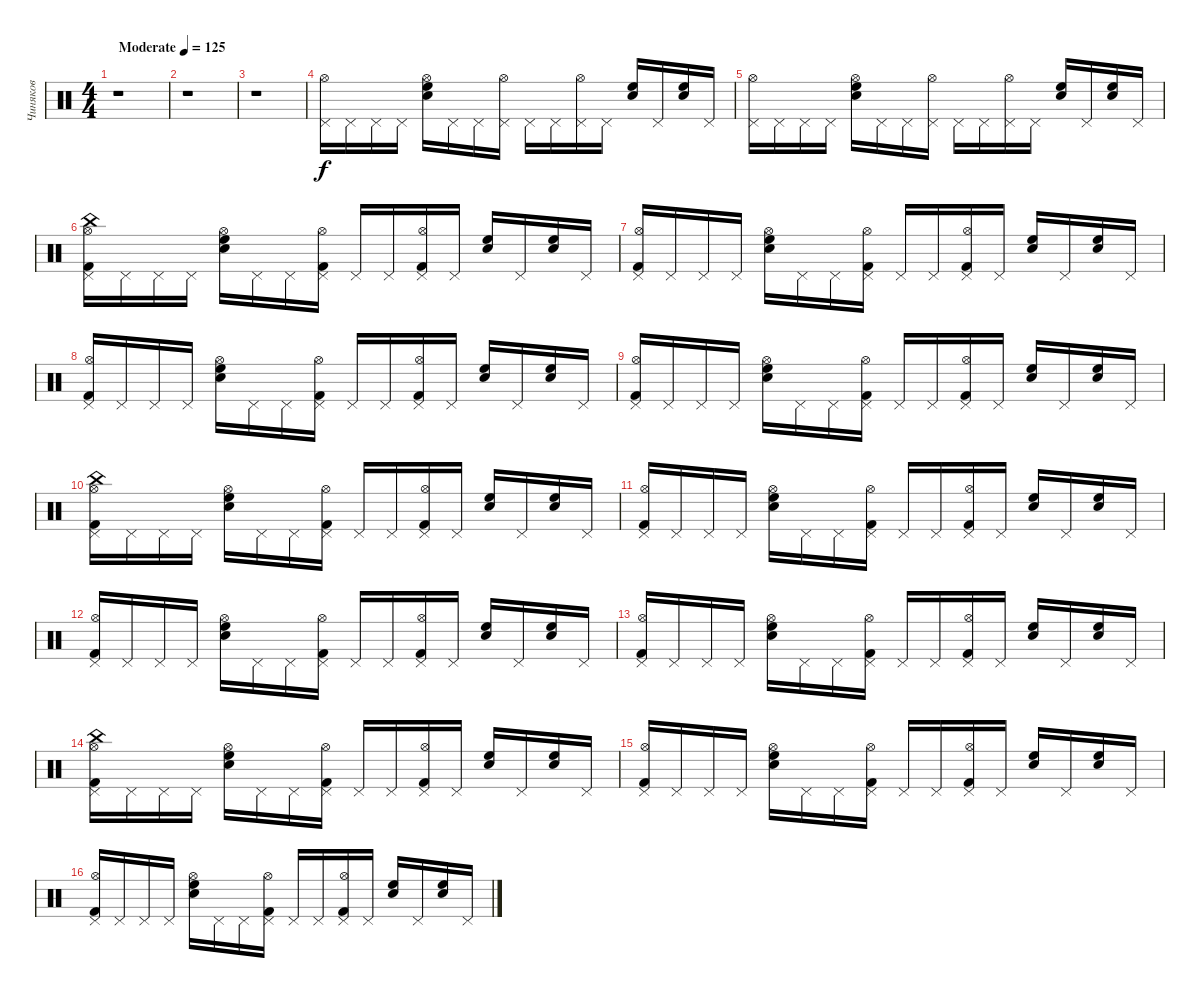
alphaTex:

\track ("Чиняков" "Чиняков") {instrument percussion}
\staff {score}
\articulation defaults
\ts (4 4)
\tempo (125 "Moderate")
\clef neutral
\ks c
r.1{dy f} |
r.1 |
r.1 |
("Pedal Hi-Hat (hit)" "Hi-Hat (open)").16{volume 5} "Pedal Hi-Hat (hit)".16 "Pedal Hi-Hat (hit)".16 "Pedal Hi-Hat (hit)".16{volume 6} ("Electric Snare (hit)" "High Floor Tom (hit)" "Hi-Hat (open)").16 "Pedal Hi-Hat (hit)".16 "Pedal Hi-Hat (hit)".16 ("Pedal Hi-Hat (hit)" "Hi-Hat (open)").16{volume 8} "Pedal Hi-Hat (hit)".16 "Pedal Hi-Hat (hit)".16 ("Pedal Hi-Hat (hit)" "Hi-Hat (open)").16 "Pedal Hi-Hat (hit)".16 ("High Floor Tom (hit)" "Electric Snare (hit)").16{volume 9} "Pedal Hi-Hat (hit)".16 ("High Floor Tom (hit)" "Electric Snare (hit)").16 "Pedal Hi-Hat (hit)".16 |
("Pedal Hi-Hat (hit)" "Hi-Hat (open)").16{volume 9} "Pedal Hi-Hat (hit)".16 "Pedal Hi-Hat (hit)".16 "Pedal Hi-Hat (hit)".16 ("Electric Snare (hit)" "High Floor Tom (hit)" "Hi-Hat (open)").16 "Pedal Hi-Hat (hit)".16 "Pedal Hi-Hat (hit)".16{volume 11} ("Pedal Hi-Hat (hit)" "Hi-Hat (open)").16 "Pedal Hi-Hat (hit)".16 "Pedal Hi-Hat (hit)".16 ("Pedal Hi-Hat (hit)" "Hi-Hat (open)").16{volume 14} "Pedal Hi-Hat (hit)".16 ("High Floor Tom (hit)" "Electric Snare (hit)").16 "Pedal Hi-Hat (hit)".16 ("High Floor Tom (hit)" "Electric Snare (hit)").16 "Pedal Hi-Hat (hit)".16 |
("Pedal Hi-Hat (hit)" "Kick (hit) 2" "Hi-Hat (open)" "China (hit)").16 "Pedal Hi-Hat (hit)".16 "Pedal Hi-Hat (hit)".16 "Pedal Hi-Hat (hit)".16 ("Electric Snare (hit)" "High Floor Tom (hit)" "Hi-Hat (open)").16 "Pedal Hi-Hat (hit)".16 "Pedal Hi-Hat (hit)".16 ("Pedal Hi-Hat (hit)" "Kick (hit) 2" "Hi-Hat (open)").16 "Pedal Hi-Hat (hit)".16 "Pedal Hi-Hat (hit)".16 ("Pedal Hi-Hat (hit)" "Kick (hit) 2" "Hi-Hat (open)").16 "Pedal Hi-Hat (hit)".16 ("High Floor Tom (hit)" "Electric Snare (hit)").16 "Pedal Hi-Hat (hit)".16 ("High Floor Tom (hit)" "Electric Snare (hit)").16 "Pedal Hi-Hat (hit)".16 |
("Pedal Hi-Hat (hit)" "Kick (hit) 2" "Hi-Hat (open)").16 "Pedal Hi-Hat (hit)".16 "Pedal Hi-Hat (hit)".16 "Pedal Hi-Hat (hit)".16 ("Electric Snare (hit)" "High Floor Tom (hit)" "Hi-Hat (open)").16 "Pedal Hi-Hat (hit)".16 "Pedal Hi-Hat (hit)".16 ("Pedal Hi-Hat (hit)" "Kick (hit) 2" "Hi-Hat (open)").16 "Pedal Hi-Hat (hit)".16 "Pedal Hi-Hat (hit)".16 ("Pedal Hi-Hat (hit)" "Kick (hit) 2" "Hi-Hat (open)").16 "Pedal Hi-Hat (hit)".16 ("High Floor Tom (hit)" "Electric Snare (hit)").16 "Pedal Hi-Hat (hit)".16 ("High Floor Tom (hit)" "Electric Snare (hit)").16 "Pedal Hi-Hat (hit)".16 |
("Pedal Hi-Hat (hit)" "Kick (hit) 2" "Hi-Hat (open)").16 "Pedal Hi-Hat (hit)".16 "Pedal Hi-Hat (hit)".16 "Pedal Hi-Hat (hit)".16 ("Electric Snare (hit)" "High Floor Tom (hit)" "Hi-Hat (open)").16 "Pedal Hi-Hat (hit)".16 "Pedal Hi-Hat (hit)".16 ("Pedal Hi-Hat (hit)" "Kick (hit) 2" "Hi-Hat (open)").16 "Pedal Hi-Hat (hit)".16 "Pedal Hi-Hat (hit)".16 ("Pedal Hi-Hat (hit)" "Kick (hit) 2" "Hi-Hat (open)").16 "Pedal Hi-Hat (hit)".16 ("High Floor Tom (hit)" "Electric Snare (hit)").16 "Pedal Hi-Hat (hit)".16 ("High Floor Tom (hit)" "Electric Snare (hit)").16 "Pedal Hi-Hat (hit)".16 |
("Pedal Hi-Hat (hit)" "Kick (hit) 2" "Hi-Hat (open)").16 "Pedal Hi-Hat (hit)".16 "Pedal Hi-Hat (hit)".16 "Pedal Hi-Hat (hit)".16 ("Electric Snare (hit)" "High Floor Tom (hit)" "Hi-Hat (open)").16 "Pedal Hi-Hat (hit)".16 "Pedal Hi-Hat (hit)".16 ("Pedal Hi-Hat (hit)" "Kick (hit) 2" "Hi-Hat (open)").16 "Pedal Hi-Hat (hit)".16 "Pedal Hi-Hat (hit)".16 ("Pedal Hi-Hat (hit)" "Kick (hit) 2" "Hi-Hat (open)").16 "Pedal Hi-Hat (hit)".16 ("High Floor Tom (hit)" "Electric Snare (hit)").16 "Pedal Hi-Hat (hit)".16 ("High Floor Tom (hit)" "Electric Snare (hit)").16 "Pedal Hi-Hat (hit)".16 |
("Pedal Hi-Hat (hit)" "Kick (hit) 2" "Hi-Hat (open)" "China (hit)").16 "Pedal Hi-Hat (hit)".16 "Pedal Hi-Hat (hit)".16 "Pedal Hi-Hat (hit)".16 ("Electric Snare (hit)" "High Floor Tom (hit)" "Hi-Hat (open)").16 "Pedal Hi-Hat (hit)".16 "Pedal Hi-Hat (hit)".16 ("Pedal Hi-Hat (hit)" "Kick (hit) 2" "Hi-Hat (open)").16 "Pedal Hi-Hat (hit)".16 "Pedal Hi-Hat (hit)".16 ("Pedal Hi-Hat (hit)" "Kick (hit) 2" "Hi-Hat (open)").16 "Pedal Hi-Hat (hit)".16 ("High Floor Tom (hit)" "Electric Snare (hit)").16 "Pedal Hi-Hat (hit)".16 ("High Floor Tom (hit)" "Electric Snare (hit)").16 "Pedal Hi-Hat (hit)".16 |
("Pedal Hi-Hat (hit)" "Kick (hit) 2" "Hi-Hat (open)").16 "Pedal Hi-Hat (hit)".16 "Pedal Hi-Hat (hit)".16 "Pedal Hi-Hat (hit)".16 ("Electric Snare (hit)" "High Floor Tom (hit)" "Hi-Hat (open)").16 "Pedal Hi-Hat (hit)".16 "Pedal Hi-Hat (hit)".16 ("Pedal Hi-Hat (hit)" "Kick (hit) 2" "Hi-Hat (open)").16 "Pedal Hi-Hat (hit)".16 "Pedal Hi-Hat (hit)".16 ("Pedal Hi-Hat (hit)" "Kick (hit) 2" "Hi-Hat (open)").16 "Pedal Hi-Hat (hit)".16 ("High Floor Tom (hit)" "Electric Snare (hit)").16 "Pedal Hi-Hat (hit)".16 ("High Floor Tom (hit)" "Electric Snare (hit)").16 "Pedal Hi-Hat (hit)".16 |
("Pedal Hi-Hat (hit)" "Kick (hit) 2" "Hi-Hat (open)").16 "Pedal Hi-Hat (hit)".16 "Pedal Hi-Hat (hit)".16 "Pedal Hi-Hat (hit)".16 ("Electric Snare (hit)" "High Floor Tom (hit)" "Hi-Hat (open)").16 "Pedal Hi-Hat (hit)".16 "Pedal Hi-Hat (hit)".16 ("Pedal Hi-Hat (hit)" "Kick (hit) 2" "Hi-Hat (open)").16 "Pedal Hi-Hat (hit)".16 "Pedal Hi-Hat (hit)".16 ("Pedal Hi-Hat (hit)" "Kick (hit) 2" "Hi-Hat (open)").16 "Pedal Hi-Hat (hit)".16 ("High Floor Tom (hit)" "Electric Snare (hit)").16 "Pedal Hi-Hat (hit)".16 ("High Floor Tom (hit)" "Electric Snare (hit)").16 "Pedal Hi-Hat (hit)".16 |
("Pedal Hi-Hat (hit)" "Kick (hit) 2" "Hi-Hat (open)").16 "Pedal Hi-Hat (hit)".16 "Pedal Hi-Hat (hit)".16 "Pedal Hi-Hat (hit)".16 ("Electric Snare (hit)" "High Floor Tom (hit)" "Hi-Hat (open)").16 "Pedal Hi-Hat (hit)".16 "Pedal Hi-Hat (hit)".16 ("Pedal Hi-Hat (hit)" "Kick (hit) 2" "Hi-Hat (open)").16 "Pedal Hi-Hat (hit)".16 "Pedal Hi-Hat (hit)".16 ("Pedal Hi-Hat (hit)" "Kick (hit) 2" "Hi-Hat (open)").16 "Pedal Hi-Hat (hit)".16 ("High Floor Tom (hit)" "Electric Snare (hit)").16 "Pedal Hi-Hat (hit)".16 ("High Floor Tom (hit)" "Electric Snare (hit)").16 "Pedal Hi-Hat (hit)".16 |
("Pedal Hi-Hat (hit)" "Kick (hit) 2" "Hi-Hat (open)" "China (hit)").16 "Pedal Hi-Hat (hit)".16 "Pedal Hi-Hat (hit)".16 "Pedal Hi-Hat (hit)".16 ("Electric Snare (hit)" "High Floor Tom (hit)" "Hi-Hat (open)").16 "Pedal Hi-Hat (hit)".16 "Pedal Hi-Hat (hit)".16 ("Pedal Hi-Hat (hit)" "Kick (hit) 2" "Hi-Hat (open)").16 "Pedal Hi-Hat (hit)".16 "Pedal Hi-Hat (hit)".16 ("Pedal Hi-Hat (hit)" "Kick (hit) 2" "Hi-Hat (open)").16 "Pedal Hi-Hat (hit)".16 ("High Floor Tom (hit)" "Electric Snare (hit)").16 "Pedal Hi-Hat (hit)".16 ("High Floor Tom (hit)" "Electric Snare (hit)").16 "Pedal Hi-Hat (hit)".16 |
("Pedal Hi-Hat (hit)" "Kick (hit) 2" "Hi-Hat (open)").16 "Pedal Hi-Hat (hit)".16 "Pedal Hi-Hat (hit)".16 "Pedal Hi-Hat (hit)".16 ("Electric Snare (hit)" "High Floor Tom (hit)" "Hi-Hat (open)").16 "Pedal Hi-Hat (hit)".16 "Pedal Hi-Hat (hit)".16 ("Pedal Hi-Hat (hit)" "Kick (hit) 2" "Hi-Hat (open)").16 "Pedal Hi-Hat (hit)".16 "Pedal Hi-Hat (hit)".16 ("Pedal Hi-Hat (hit)" "Kick (hit) 2" "Hi-Hat (open)").16 "Pedal Hi-Hat (hit)".16 ("High Floor Tom (hit)" "Electric Snare (hit)").16 "Pedal Hi-Hat (hit)".16 ("High Floor Tom (hit)" "Electric Snare (hit)").16 "Pedal Hi-Hat (hit)".16 |
("Pedal Hi-Hat (hit)" "Kick (hit) 2" "Hi-Hat (open)").16 "Pedal Hi-Hat (hit)".16 "Pedal Hi-Hat (hit)".16 "Pedal Hi-Hat (hit)".16 ("Electric Snare (hit)" "High Floor Tom (hit)" "Hi-Hat (open)").16 "Pedal Hi-Hat (hit)".16 "Pedal Hi-Hat (hit)".16 ("Pedal Hi-Hat (hit)" "Kick (hit) 2" "Hi-Hat (open)").16 "Pedal Hi-Hat (hit)".16 "Pedal Hi-Hat (hit)".16 ("Pedal Hi-Hat (hit)" "Kick (hit) 2" "Hi-Hat (open)").16 "Pedal Hi-Hat (hit)".16 ("High Floor Tom (hit)" "Electric Snare (hit)").16 "Pedal Hi-Hat (hit)".16 ("High Floor Tom (hit)" "Electric Snare (hit)").16 "Pedal Hi-Hat (hit)".16
